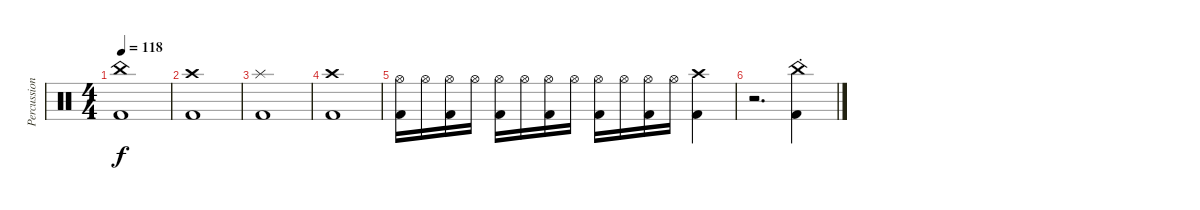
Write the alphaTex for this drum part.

\track ("Percussion" "Percussion") {instrument percussion}
\staff {score}
\articulation defaults
\ts (4 4)
\tempo 118
\clef neutral
\ks c
("China (hit)" "Kick (hit) 2").1{dy f} |
("Crash high (hit)" "Kick (hit) 2").1 |
("Splash (hit)" "Kick (hit) 2").1 |
("Crash high (hit)" "Kick (hit) 2").1 |
("Hi-Hat (open)" "Kick (hit) 2").16 "Hi-Hat (open)".16 ("Hi-Hat (open)" "Kick (hit) 2").16 "Hi-Hat (open)".16 ("Hi-Hat (open)" "Kick (hit) 2").16 "Hi-Hat (open)".16 ("Hi-Hat (open)" "Kick (hit) 2").16 "Hi-Hat (open)".16 ("Hi-Hat (open)" "Kick (hit) 2").16 "Hi-Hat (open)".16 ("Hi-Hat (open)" "Kick (hit) 2").16 "Hi-Hat (open)".16 ("Crash high (hit)" "Kick (hit) 2").4 |
r.2{d} ("China (hit)"{st} "Kick (hit) 2"{st}).4
